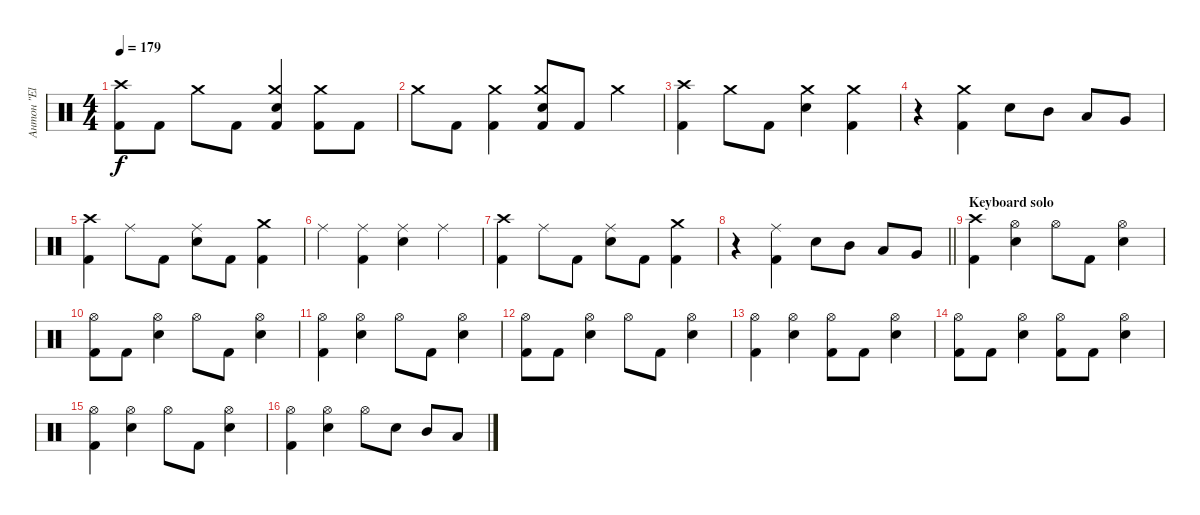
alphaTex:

\track ("Антон \"El Bastardo\" Смольянин" "Антон \"El ") {instrument percussion}
\staff {score}
\articulation defaults
\ts (4 4)
\tempo 179
\clef neutral
\ks c
("Crash high (hit)" "Kick (hit) 2").8{dy f} "Kick (hit) 2".8 "Crash medium (hit)".8 "Kick (hit) 2".8 ("Crash medium (hit)" "Electric Snare (hit)" "Kick (hit) 2").4 ("Crash medium (hit)" "Kick (hit) 2").8 "Kick (hit) 2".8 |
"Crash medium (hit)".8 "Kick (hit) 2".8 ("Crash medium (hit)" "Kick (hit) 2").4 ("Crash medium (hit)" "Electric Snare (hit)" "Kick (hit) 2").8 "Kick (hit) 2".8 "Crash medium (hit)".4 |
("Crash high (hit)" "Kick (hit) 2").4 "Crash medium (hit)".8 "Kick (hit) 2".8 ("Crash medium (hit)" "Electric Snare (hit)").4 ("Crash medium (hit)" "Kick (hit) 2").4 |
r.4 ("Crash medium (hit)" "Kick (hit) 2").4 "Electric Snare (hit)".8 "Mid Tom (hit)".8 "Low Tom (hit)".8 "Very Low Tom (hit)".8 |
("Crash high (hit)" "Kick (hit) 2").4 "Ride (middle)".8 "Kick (hit) 2".8 ("Ride (middle)" "Electric Snare (hit)").8 "Kick (hit) 2".8 ("Crash medium (hit)" "Kick (hit) 2").4 |
"Ride (middle)".4 ("Ride (middle)" "Kick (hit) 2").4 ("Ride (middle)" "Electric Snare (hit)").4 "Ride (middle)".4 |
("Crash high (hit)" "Kick (hit) 2").4 "Ride (middle)".8 "Kick (hit) 2".8 ("Ride (middle)" "Electric Snare (hit)").8 "Kick (hit) 2".8 ("Crash medium (hit)" "Kick (hit) 2").4 |
\barLineRight lightlight
r.4 ("Ride (middle)" "Kick (hit) 2").4 "Electric Snare (hit)".8 "Mid Tom (hit)".8 "Low Tom (hit)".8 "Very Low Tom (hit)".8 |
\section ("" "Keyboard solo")
("Crash high (hit)" "Kick (hit) 2").4 ("Hi-Hat (open)" "Electric Snare (hit)").4 "Hi-Hat (open)".8 "Kick (hit) 2".8 ("Hi-Hat (open)" "Electric Snare (hit)").4 |
("Hi-Hat (open)" "Kick (hit) 2").8 "Kick (hit) 2".8 ("Hi-Hat (open)" "Electric Snare (hit)").4 "Hi-Hat (open)".8 "Kick (hit) 2".8 ("Hi-Hat (open)" "Electric Snare (hit)").4 |
("Hi-Hat (open)" "Kick (hit) 2").4 ("Hi-Hat (open)" "Electric Snare (hit)").4 "Hi-Hat (open)".8 "Kick (hit) 2".8 ("Hi-Hat (open)" "Electric Snare (hit)").4 |
("Hi-Hat (open)" "Kick (hit) 2").8 "Kick (hit) 2".8 ("Hi-Hat (open)" "Electric Snare (hit)").4 "Hi-Hat (open)".8 "Kick (hit) 2".8 ("Hi-Hat (open)" "Electric Snare (hit)").4 |
("Hi-Hat (open)" "Kick (hit) 2").4 ("Hi-Hat (open)" "Electric Snare (hit)").4 ("Hi-Hat (open)" "Kick (hit) 2").8 "Kick (hit) 2".8 ("Hi-Hat (open)" "Electric Snare (hit)").4 |
("Hi-Hat (open)" "Kick (hit) 2").8 "Kick (hit) 2".8 ("Hi-Hat (open)" "Electric Snare (hit)").4 ("Hi-Hat (open)" "Kick (hit) 2").8 "Kick (hit) 2".8 ("Hi-Hat (open)" "Electric Snare (hit)").4 |
("Hi-Hat (open)" "Kick (hit) 2").4 ("Hi-Hat (open)" "Electric Snare (hit)").4 "Hi-Hat (open)".8 "Kick (hit) 2".8 ("Hi-Hat (open)" "Electric Snare (hit)").4 |
("Hi-Hat (open)" "Kick (hit) 2").4 ("Hi-Hat (open)" "Electric Snare (hit)").4 "Hi-Hat (open)".8 "Electric Snare (hit)".8 "Mid Tom (hit)".8 "Low Tom (hit)".8
